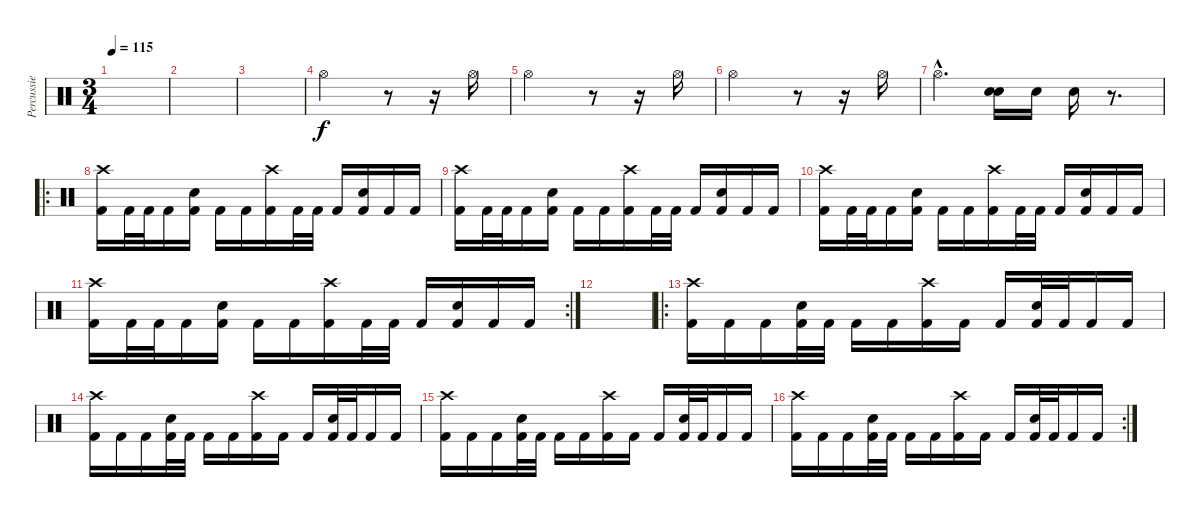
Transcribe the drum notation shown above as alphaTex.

\track ("Percussie" "Percussie") {instrument percussion}
\staff {score}
\articulation defaults
\ts (3 4)
\tempo 115
\clef neutral
\ks c
|
|
|
"Hi-Hat (open)".2 r.8 r.16 "Hi-Hat (open)".16 |
"Hi-Hat (open)".2 r.8 r.16 "Hi-Hat (open)".16 |
"Hi-Hat (open)".2 r.8 r.16 "Hi-Hat (open)".16 |
"Hi-Hat (open)"{hac}.4{d} ("Snare (hit) 2" "Snare (hit) 2").16{bd 480} "Snare (hit) 2".16 "Snare (hit) 2".16 r.8{d} |
\ro
("Crash high (hit)" "Kick (hit) 2").16 "Kick (hit) 2".32 "Kick (hit) 2".32 "Kick (hit) 2".16 ("Snare (hit) 2" "Kick (hit) 2").16 "Kick (hit) 2".16 "Kick (hit) 2".16 ("Crash high (hit)" "Kick (hit) 2").16 "Kick (hit) 2".32 "Kick (hit) 2".32 "Kick (hit) 2".16 ("Snare (hit) 2" "Kick (hit) 2").16 "Kick (hit) 2".16 "Kick (hit) 2".16 |
("Crash high (hit)" "Kick (hit) 2").16 "Kick (hit) 2".32 "Kick (hit) 2".32 "Kick (hit) 2".16 ("Snare (hit) 2" "Kick (hit) 2").16 "Kick (hit) 2".16 "Kick (hit) 2".16 ("Crash high (hit)" "Kick (hit) 2").16 "Kick (hit) 2".32 "Kick (hit) 2".32 "Kick (hit) 2".16 ("Snare (hit) 2" "Kick (hit) 2").16 "Kick (hit) 2".16 "Kick (hit) 2".16 |
("Crash high (hit)" "Kick (hit) 2").16 "Kick (hit) 2".32 "Kick (hit) 2".32 "Kick (hit) 2".16 ("Snare (hit) 2" "Kick (hit) 2").16 "Kick (hit) 2".16 "Kick (hit) 2".16 ("Crash high (hit)" "Kick (hit) 2").16 "Kick (hit) 2".32 "Kick (hit) 2".32 "Kick (hit) 2".16 ("Snare (hit) 2" "Kick (hit) 2").16 "Kick (hit) 2".16 "Kick (hit) 2".16 |
\rc 2
("Crash high (hit)" "Kick (hit) 2").16 "Kick (hit) 2".32 "Kick (hit) 2".32 "Kick (hit) 2".16 ("Snare (hit) 2" "Kick (hit) 2").16 "Kick (hit) 2".16 "Kick (hit) 2".16 ("Crash high (hit)" "Kick (hit) 2").16 "Kick (hit) 2".32 "Kick (hit) 2".32 "Kick (hit) 2".16 ("Snare (hit) 2" "Kick (hit) 2").16 "Kick (hit) 2".16 "Kick (hit) 2".16 |
|
\ro
("Crash high (hit)" "Kick (hit) 2").16 "Kick (hit) 2".16 "Kick (hit) 2".16 ("Snare (hit) 2" "Kick (hit) 2").32 "Kick (hit) 2".32 "Kick (hit) 2".16 "Kick (hit) 2".16 ("Crash high (hit)" "Kick (hit) 2").16 "Kick (hit) 2".16 "Kick (hit) 2".16 ("Snare (hit) 2" "Kick (hit) 2").32 "Kick (hit) 2".32 "Kick (hit) 2".16 "Kick (hit) 2".16 |
("Crash high (hit)" "Kick (hit) 2").16 "Kick (hit) 2".16 "Kick (hit) 2".16 ("Snare (hit) 2" "Kick (hit) 2").32 "Kick (hit) 2".32 "Kick (hit) 2".16 "Kick (hit) 2".16 ("Crash high (hit)" "Kick (hit) 2").16 "Kick (hit) 2".16 "Kick (hit) 2".16 ("Snare (hit) 2" "Kick (hit) 2").32 "Kick (hit) 2".32 "Kick (hit) 2".16 "Kick (hit) 2".16 |
("Crash high (hit)" "Kick (hit) 2").16 "Kick (hit) 2".16 "Kick (hit) 2".16 ("Snare (hit) 2" "Kick (hit) 2").32 "Kick (hit) 2".32 "Kick (hit) 2".16 "Kick (hit) 2".16 ("Crash high (hit)" "Kick (hit) 2").16 "Kick (hit) 2".16 "Kick (hit) 2".16 ("Snare (hit) 2" "Kick (hit) 2").32 "Kick (hit) 2".32 "Kick (hit) 2".16 "Kick (hit) 2".16 |
\rc 2
("Crash high (hit)" "Kick (hit) 2").16 "Kick (hit) 2".16 "Kick (hit) 2".16 ("Snare (hit) 2" "Kick (hit) 2").32 "Kick (hit) 2".32 "Kick (hit) 2".16 "Kick (hit) 2".16 ("Crash high (hit)" "Kick (hit) 2").16 "Kick (hit) 2".16 "Kick (hit) 2".16 ("Snare (hit) 2" "Kick (hit) 2").32 "Kick (hit) 2".32 "Kick (hit) 2".16 "Kick (hit) 2".16
